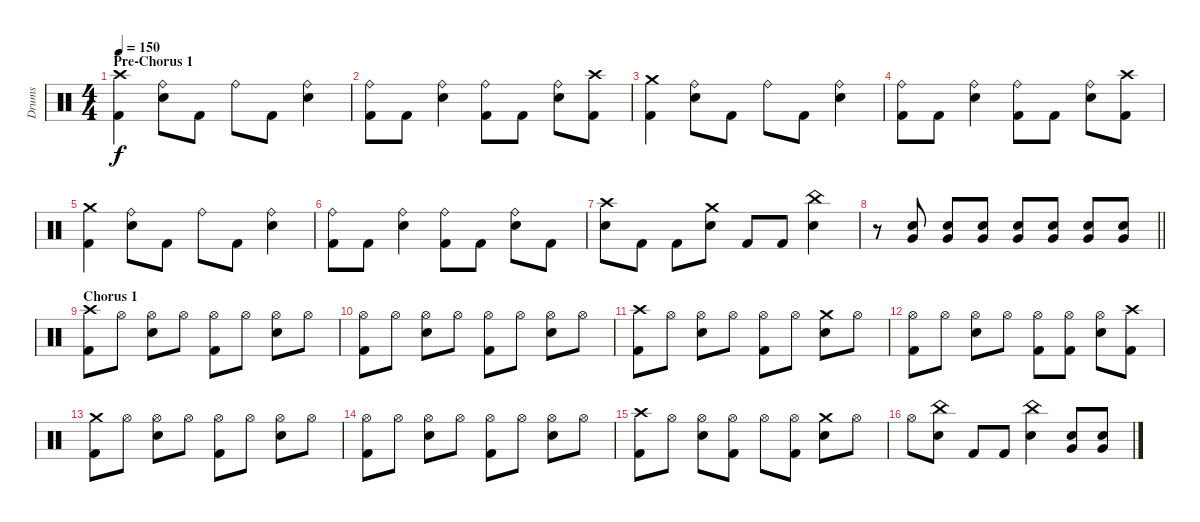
\track ("Drums" "Drums") {instrument percussion}
\staff {score}
\articulation defaults
\ts (4 4)
\section ("" "Pre-Chorus 1")
\tempo 150
\clef neutral
\ks c
("Crash high (hit)" "Kick (hit) 2").4{dy f} ("Ride (bell)" "Electric Snare (hit)").8 "Kick (hit) 2".8 "Ride (bell)".8 "Kick (hit) 2".8 ("Ride (bell)" "Electric Snare (hit)").4 |
("Ride (bell)" "Kick (hit) 2").8 "Kick (hit) 2".8 ("Ride (bell)" "Electric Snare (hit)").4 ("Ride (bell)" "Kick (hit) 2").8 "Kick (hit) 2".8 ("Ride (bell)" "Electric Snare (hit)").8 ("Crash high (hit)" "Kick (hit) 2").8 |
("Crash medium (hit)" "Kick (hit) 2").4 ("Ride (bell)" "Electric Snare (hit)").8 "Kick (hit) 2".8 "Ride (bell)".8 "Kick (hit) 2".8 ("Ride (bell)" "Electric Snare (hit)").4 |
("Ride (bell)" "Kick (hit) 2").8 "Kick (hit) 2".8 ("Ride (bell)" "Electric Snare (hit)").4 ("Ride (bell)" "Kick (hit) 2").8 "Kick (hit) 2".8 ("Ride (bell)" "Electric Snare (hit)").8 ("Crash high (hit)" "Kick (hit) 2").8 |
("Crash medium (hit)" "Kick (hit) 2").4 ("Ride (bell)" "Electric Snare (hit)").8 "Kick (hit) 2".8 "Ride (bell)".8 "Kick (hit) 2".8 ("Ride (bell)" "Electric Snare (hit)").4 |
("Ride (bell)" "Kick (hit) 2").8 "Kick (hit) 2".8 ("Ride (bell)" "Electric Snare (hit)").4 ("Ride (bell)" "Kick (hit) 2").8 "Kick (hit) 2".8 ("Ride (bell)" "Electric Snare (hit)").8 "Kick (hit) 2".8 |
("Crash high (hit)" "Electric Snare (hit)").8 "Kick (hit) 2".8 "Kick (hit) 2".8 ("Crash medium (hit)" "Electric Snare (hit)").8 "Kick (hit) 2".8 "Kick (hit) 2".8 ("China (hit)" "Electric Snare (hit)").4 |
\barLineRight lightlight
r.8{volume 9} ("Very Low Tom (hit)" "Electric Snare (hit)").8{volume 13} ("Very Low Tom (hit)" "Electric Snare (hit)").8 ("Very Low Tom (hit)" "Electric Snare (hit)").8 ("Very Low Tom (hit)" "Electric Snare (hit)").8 ("Very Low Tom (hit)" "Electric Snare (hit)").8 ("Very Low Tom (hit)" "Electric Snare (hit)").8 ("Very Low Tom (hit)" "Electric Snare (hit)").8 |
\section ("" "Chorus 1")
("Crash high (hit)" "Kick (hit) 2").8 "Hi-Hat (open)".8 ("Hi-Hat (open)" "Electric Snare (hit)").8 "Hi-Hat (open)".8 ("Hi-Hat (open)" "Kick (hit) 2").8 "Hi-Hat (open)".8 ("Hi-Hat (open)" "Electric Snare (hit)").8 "Hi-Hat (open)".8 |
("Hi-Hat (open)" "Kick (hit) 2").8 "Hi-Hat (open)".8 ("Hi-Hat (open)" "Electric Snare (hit)").8 "Hi-Hat (open)".8 ("Hi-Hat (open)" "Kick (hit) 2").8 "Hi-Hat (open)".8 ("Hi-Hat (open)" "Electric Snare (hit)").8 "Hi-Hat (open)".8 |
("Crash high (hit)" "Kick (hit) 2").8 "Hi-Hat (open)".8 ("Hi-Hat (open)" "Electric Snare (hit)").8 "Hi-Hat (open)".8 ("Hi-Hat (open)" "Kick (hit) 2").8 "Hi-Hat (open)".8 ("Crash medium (hit)" "Electric Snare (hit)").8 "Hi-Hat (open)".8 |
("Hi-Hat (open)" "Kick (hit) 2").8 "Hi-Hat (open)".8 ("Hi-Hat (open)" "Electric Snare (hit)").8 "Hi-Hat (open)".8 ("Hi-Hat (open)" "Kick (hit) 2").8 ("Hi-Hat (open)" "Kick (hit) 2").8 ("Hi-Hat (open)" "Electric Snare (hit)").8 ("Crash high (hit)" "Kick (hit) 2").8 |
("Crash medium (hit)" "Kick (hit) 2").8 "Hi-Hat (open)".8 ("Hi-Hat (open)" "Electric Snare (hit)").8 "Hi-Hat (open)".8 ("Hi-Hat (open)" "Kick (hit) 2").8 "Hi-Hat (open)".8 ("Hi-Hat (open)" "Electric Snare (hit)").8 "Hi-Hat (open)".8 |
("Hi-Hat (open)" "Kick (hit) 2").8 "Hi-Hat (open)".8 ("Hi-Hat (open)" "Electric Snare (hit)").8 "Hi-Hat (open)".8 ("Hi-Hat (open)" "Kick (hit) 2").8 "Hi-Hat (open)".8 ("Hi-Hat (open)" "Electric Snare (hit)").8 "Hi-Hat (open)".8 |
("Crash high (hit)" "Kick (hit) 2").8 "Hi-Hat (open)".8 ("Hi-Hat (open)" "Electric Snare (hit)").8 ("Hi-Hat (open)" "Kick (hit) 2").8 "Hi-Hat (open)".8 ("Hi-Hat (open)" "Kick (hit) 2").8 ("Crash medium (hit)" "Electric Snare (hit)").8 "Hi-Hat (open)".8 |
"Hi-Hat (open)".8 ("China (hit)" "Electric Snare (hit)").8 "Kick (hit) 2".8 "Kick (hit) 2".8 ("China (hit)" "Electric Snare (hit)").4 ("Very Low Tom (hit)" "Electric Snare (hit)").8 ("Very Low Tom (hit)" "Electric Snare (hit)").8
